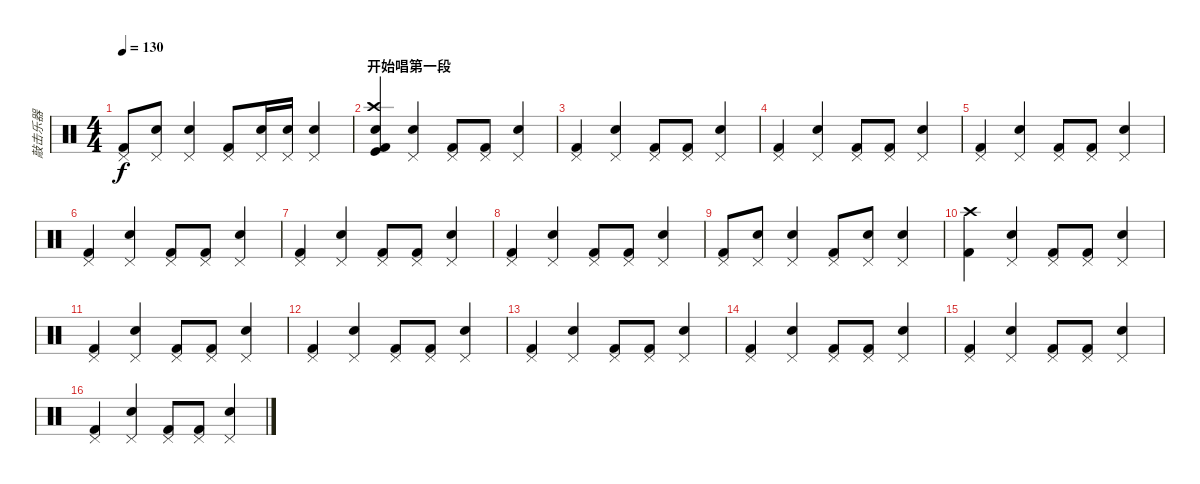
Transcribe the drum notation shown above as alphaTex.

\track ("敲击乐器" "敲击乐器") {instrument percussion}
\staff {score}
\articulation defaults
\ts (4 4)
\tempo 130
\clef neutral
\ks c
("Kick (hit) 2" "Pedal Hi-Hat (hit)").8{dy f} ("Snare (hit) 2" "Pedal Hi-Hat (hit)").8 ("Snare (hit) 2" "Pedal Hi-Hat (hit)").4 ("Kick (hit) 2" "Pedal Hi-Hat (hit)").8 ("Snare (hit) 2" "Pedal Hi-Hat (hit)").16 ("Snare (hit) 2" "Pedal Hi-Hat (hit)").16 ("Snare (hit) 2" "Pedal Hi-Hat (hit)").4 |
\section ("" "开始唱第一段")
("Kick (hit) 2" "Crash high (hit)" "Kick (hit)" "Metronome (bell)").4 ("Snare (hit) 2" "Pedal Hi-Hat (hit)").4 ("Kick (hit) 2" "Pedal Hi-Hat (hit)").8 ("Kick (hit) 2" "Pedal Hi-Hat (hit)").8 ("Snare (hit) 2" "Pedal Hi-Hat (hit)").4 |
("Kick (hit) 2" "Pedal Hi-Hat (hit)").4 ("Snare (hit) 2" "Pedal Hi-Hat (hit)").4 ("Kick (hit) 2" "Pedal Hi-Hat (hit)").8 ("Kick (hit) 2" "Pedal Hi-Hat (hit)").8 ("Snare (hit) 2" "Pedal Hi-Hat (hit)").4 |
("Kick (hit) 2" "Pedal Hi-Hat (hit)").4 ("Snare (hit) 2" "Pedal Hi-Hat (hit)").4 ("Kick (hit) 2" "Pedal Hi-Hat (hit)").8 ("Kick (hit) 2" "Pedal Hi-Hat (hit)").8 ("Snare (hit) 2" "Pedal Hi-Hat (hit)").4 |
("Kick (hit) 2" "Pedal Hi-Hat (hit)").4 ("Snare (hit) 2" "Pedal Hi-Hat (hit)").4 ("Kick (hit) 2" "Pedal Hi-Hat (hit)").8 ("Kick (hit) 2" "Pedal Hi-Hat (hit)").8 ("Snare (hit) 2" "Pedal Hi-Hat (hit)").4 |
("Kick (hit) 2" "Pedal Hi-Hat (hit)").4 ("Snare (hit) 2" "Pedal Hi-Hat (hit)").4 ("Kick (hit) 2" "Pedal Hi-Hat (hit)").8 ("Kick (hit) 2" "Pedal Hi-Hat (hit)").8 ("Snare (hit) 2" "Pedal Hi-Hat (hit)").4 |
("Kick (hit) 2" "Pedal Hi-Hat (hit)").4 ("Snare (hit) 2" "Pedal Hi-Hat (hit)").4 ("Kick (hit) 2" "Pedal Hi-Hat (hit)").8 ("Kick (hit) 2" "Pedal Hi-Hat (hit)").8 ("Snare (hit) 2" "Pedal Hi-Hat (hit)").4 |
("Kick (hit) 2" "Pedal Hi-Hat (hit)").4 ("Snare (hit) 2" "Pedal Hi-Hat (hit)").4 ("Kick (hit) 2" "Pedal Hi-Hat (hit)").8 ("Kick (hit) 2" "Pedal Hi-Hat (hit)").8 ("Snare (hit) 2" "Pedal Hi-Hat (hit)").4 |
("Kick (hit) 2" "Pedal Hi-Hat (hit)").8 ("Snare (hit) 2" "Pedal Hi-Hat (hit)").8 ("Snare (hit) 2" "Pedal Hi-Hat (hit)").4 ("Kick (hit) 2" "Pedal Hi-Hat (hit)").8 ("Snare (hit) 2" "Pedal Hi-Hat (hit)").8 ("Snare (hit) 2" "Pedal Hi-Hat (hit)").4 |
("Kick (hit) 2" "Crash high (hit)").4 ("Snare (hit) 2" "Pedal Hi-Hat (hit)").4 ("Kick (hit) 2" "Pedal Hi-Hat (hit)").8 ("Kick (hit) 2" "Pedal Hi-Hat (hit)").8 ("Snare (hit) 2" "Pedal Hi-Hat (hit)").4 |
("Kick (hit) 2" "Pedal Hi-Hat (hit)").4 ("Snare (hit) 2" "Pedal Hi-Hat (hit)").4 ("Kick (hit) 2" "Pedal Hi-Hat (hit)").8 ("Kick (hit) 2" "Pedal Hi-Hat (hit)").8 ("Snare (hit) 2" "Pedal Hi-Hat (hit)").4 |
("Kick (hit) 2" "Pedal Hi-Hat (hit)").4 ("Snare (hit) 2" "Pedal Hi-Hat (hit)").4 ("Kick (hit) 2" "Pedal Hi-Hat (hit)").8 ("Kick (hit) 2" "Pedal Hi-Hat (hit)").8 ("Snare (hit) 2" "Pedal Hi-Hat (hit)").4 |
("Kick (hit) 2" "Pedal Hi-Hat (hit)").4 ("Snare (hit) 2" "Pedal Hi-Hat (hit)").4 ("Kick (hit) 2" "Pedal Hi-Hat (hit)").8 ("Kick (hit) 2" "Pedal Hi-Hat (hit)").8 ("Snare (hit) 2" "Pedal Hi-Hat (hit)").4 |
("Kick (hit) 2" "Pedal Hi-Hat (hit)").4 ("Snare (hit) 2" "Pedal Hi-Hat (hit)").4 ("Kick (hit) 2" "Pedal Hi-Hat (hit)").8 ("Kick (hit) 2" "Pedal Hi-Hat (hit)").8 ("Snare (hit) 2" "Pedal Hi-Hat (hit)").4 |
("Kick (hit) 2" "Pedal Hi-Hat (hit)").4 ("Snare (hit) 2" "Pedal Hi-Hat (hit)").4 ("Kick (hit) 2" "Pedal Hi-Hat (hit)").8 ("Kick (hit) 2" "Pedal Hi-Hat (hit)").8 ("Snare (hit) 2" "Pedal Hi-Hat (hit)").4 |
("Kick (hit) 2" "Pedal Hi-Hat (hit)").4 ("Snare (hit) 2" "Pedal Hi-Hat (hit)").4 ("Kick (hit) 2" "Pedal Hi-Hat (hit)").8 ("Kick (hit) 2" "Pedal Hi-Hat (hit)").8 ("Snare (hit) 2" "Pedal Hi-Hat (hit)").4
